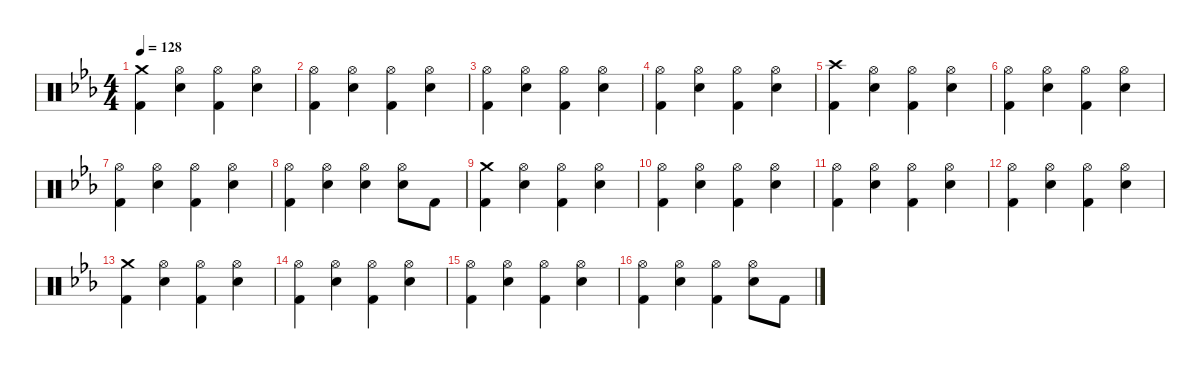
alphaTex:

\defaultSystemsLayout 4
\hideDynamics
\bracketExtendMode nobrackets
\singleTrackTrackNamePolicy hidden
\multiTrackTrackNamePolicy hidden
\firstSystemTrackNameMode fullname
\firstSystemTrackNameOrientation horizontal
\otherSystemsTrackNameOrientation horizontal
\track ("Drums" "drm.") {instrument percussion}
\staff {score}
\articulation defaults
\ts (4 4)
\tempo 128
\clef neutral
\ks cminor
("Crash medium (hit)"{acc forcenatural} "Kick (hit) 2"{acc forcenatural}).4{dy f} ("Hi-Hat (open)"{acc forcenatural} "Snare (hit) 2"{acc forcenatural}).4{dy mp} ("Hi-Hat (open)"{acc forcenatural} "Kick (hit) 2"{acc forcenatural}).4 ("Hi-Hat (open)"{acc forcenatural} "Snare (hit) 2"{acc forcenatural}).4 |
("Hi-Hat (open)"{acc forcenatural} "Kick (hit) 2"{acc forcenatural}).4 ("Hi-Hat (open)"{acc forcenatural} "Snare (hit) 2"{acc forcenatural}).4 ("Hi-Hat (open)"{acc forcenatural} "Kick (hit) 2"{acc forcenatural}).4 ("Hi-Hat (open)"{acc forcenatural} "Snare (hit) 2"{acc forcenatural}).4 |
("Hi-Hat (open)"{acc forcenatural} "Kick (hit) 2"{acc forcenatural}).4 ("Hi-Hat (open)"{acc forcenatural} "Snare (hit) 2"{acc forcenatural}).4 ("Hi-Hat (open)"{acc forcenatural} "Kick (hit) 2"{acc forcenatural}).4 ("Hi-Hat (open)"{acc forcenatural} "Snare (hit) 2"{acc forcenatural}).4 |
("Hi-Hat (open)"{acc forcenatural} "Kick (hit) 2"{acc forcenatural}).4 ("Hi-Hat (open)"{acc forcenatural} "Snare (hit) 2"{acc forcenatural}).4 ("Hi-Hat (open)"{acc forcenatural} "Kick (hit) 2"{acc forcenatural}).4 ("Hi-Hat (open)"{acc forcenatural} "Snare (hit) 2"{acc forcenatural}).4 |
("Crash high (hit)"{acc forcenatural} "Kick (hit) 2"{acc forcenatural}).4{dy f} ("Hi-Hat (open)"{acc forcenatural} "Snare (hit) 2"{acc forcenatural}).4{dy mp} ("Hi-Hat (open)"{acc forcenatural} "Kick (hit) 2"{acc forcenatural}).4 ("Hi-Hat (open)"{acc forcenatural} "Snare (hit) 2"{acc forcenatural}).4 |
("Hi-Hat (open)"{acc forcenatural} "Kick (hit) 2"{acc forcenatural}).4 ("Hi-Hat (open)"{acc forcenatural} "Snare (hit) 2"{acc forcenatural}).4 ("Hi-Hat (open)"{acc forcenatural} "Kick (hit) 2"{acc forcenatural}).4 ("Hi-Hat (open)"{acc forcenatural} "Snare (hit) 2"{acc forcenatural}).4 |
("Hi-Hat (open)"{acc forcenatural} "Kick (hit) 2"{acc forcenatural}).4 ("Hi-Hat (open)"{acc forcenatural} "Snare (hit) 2"{acc forcenatural}).4 ("Hi-Hat (open)"{acc forcenatural} "Kick (hit) 2"{acc forcenatural}).4 ("Hi-Hat (open)"{acc forcenatural} "Snare (hit) 2"{acc forcenatural}).4 |
("Hi-Hat (open)"{acc forcenatural} "Kick (hit) 2"{acc forcenatural}).4 ("Hi-Hat (open)"{acc forcenatural} "Snare (hit) 2"{acc forcenatural}).4 ("Hi-Hat (open)"{acc forcenatural} "Snare (hit) 2"{acc forcenatural}).4 ("Hi-Hat (open)"{acc forcenatural} "Snare (hit) 2"{acc forcenatural}).8 "Kick (hit) 2"{acc forcenatural}.8{dy f} |
("Crash medium (hit)"{acc forcenatural} "Kick (hit) 2"{acc forcenatural}).4 ("Hi-Hat (open)"{acc forcenatural} "Snare (hit) 2"{acc forcenatural}).4{dy mp} ("Hi-Hat (open)"{acc forcenatural} "Kick (hit) 2"{acc forcenatural}).4 ("Hi-Hat (open)"{acc forcenatural} "Snare (hit) 2"{acc forcenatural}).4 |
("Hi-Hat (open)"{acc forcenatural} "Kick (hit) 2"{acc forcenatural}).4 ("Hi-Hat (open)"{acc forcenatural} "Snare (hit) 2"{acc forcenatural}).4 ("Hi-Hat (open)"{acc forcenatural} "Kick (hit) 2"{acc forcenatural}).4 ("Hi-Hat (open)"{acc forcenatural} "Snare (hit) 2"{acc forcenatural}).4 |
("Hi-Hat (open)"{acc forcenatural} "Kick (hit) 2"{acc forcenatural}).4 ("Hi-Hat (open)"{acc forcenatural} "Snare (hit) 2"{acc forcenatural}).4 ("Hi-Hat (open)"{acc forcenatural} "Kick (hit) 2"{acc forcenatural}).4 ("Hi-Hat (open)"{acc forcenatural} "Snare (hit) 2"{acc forcenatural}).4 |
("Hi-Hat (open)"{acc forcenatural} "Kick (hit) 2"{acc forcenatural}).4 ("Hi-Hat (open)"{acc forcenatural} "Snare (hit) 2"{acc forcenatural}).4 ("Hi-Hat (open)"{acc forcenatural} "Kick (hit) 2"{acc forcenatural}).4 ("Hi-Hat (open)"{acc forcenatural} "Snare (hit) 2"{acc forcenatural}).4 |
("Crash medium (hit)"{acc forcenatural} "Kick (hit) 2"{acc forcenatural}).4{dy f} ("Hi-Hat (open)"{acc forcenatural} "Snare (hit) 2"{acc forcenatural}).4{dy mp} ("Hi-Hat (open)"{acc forcenatural} "Kick (hit) 2"{acc forcenatural}).4 ("Hi-Hat (open)"{acc forcenatural} "Snare (hit) 2"{acc forcenatural}).4 |
("Hi-Hat (open)"{acc forcenatural} "Kick (hit) 2"{acc forcenatural}).4 ("Hi-Hat (open)"{acc forcenatural} "Snare (hit) 2"{acc forcenatural}).4 ("Hi-Hat (open)"{acc forcenatural} "Kick (hit) 2"{acc forcenatural}).4 ("Hi-Hat (open)"{acc forcenatural} "Snare (hit) 2"{acc forcenatural}).4 |
("Hi-Hat (open)"{acc forcenatural} "Kick (hit) 2"{acc forcenatural}).4 ("Hi-Hat (open)"{acc forcenatural} "Snare (hit) 2"{acc forcenatural}).4 ("Hi-Hat (open)"{acc forcenatural} "Kick (hit) 2"{acc forcenatural}).4 ("Hi-Hat (open)"{acc forcenatural} "Snare (hit) 2"{acc forcenatural}).4 |
("Hi-Hat (open)"{acc forcenatural} "Kick (hit) 2"{acc forcenatural}).4 ("Hi-Hat (open)"{acc forcenatural} "Snare (hit) 2"{acc forcenatural}).4 ("Hi-Hat (open)"{acc forcenatural} "Kick (hit) 2"{acc forcenatural}).4 ("Hi-Hat (open)"{acc forcenatural} "Snare (hit) 2"{acc forcenatural}).8 "Kick (hit) 2"{acc forcenatural}.8{dy f}
